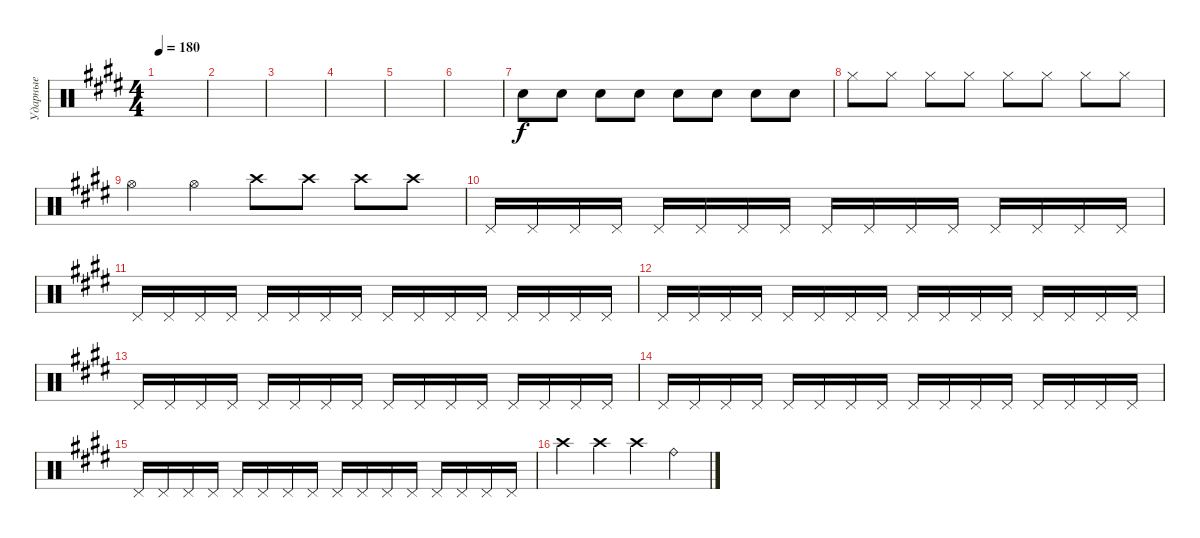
\track ("Ударные" "Ударные") {instrument percussion}
\staff {score}
\articulation defaults
\ts (4 4)
\tempo 180
\clef neutral
\ks e
|
|
|
|
|
|
"Snare (hit) 2".8 "Snare (hit) 2".8 "Snare (hit) 2".8 "Snare (hit) 2".8 "Snare (hit) 2".8 "Snare (hit) 2".8 "Snare (hit) 2".8 "Snare (hit) 2".8 |
"Hi-Hat (closed)".8 "Hi-Hat (closed)".8 "Hi-Hat (closed)".8 "Hi-Hat (closed)".8 "Hi-Hat (closed)".8 "Hi-Hat (closed)".8 "Hi-Hat (closed)".8 "Hi-Hat (closed)".8 |
"Hi-Hat (open)".4 "Hi-Hat (open)".4 "Crash high (hit)".8 "Crash high (hit)".8 "Crash high (hit)".8 "Crash high (hit)".8 |
"Pedal Hi-Hat (hit)".16 "Pedal Hi-Hat (hit)".16 "Pedal Hi-Hat (hit)".16 "Pedal Hi-Hat (hit)".16 "Pedal Hi-Hat (hit)".16 "Pedal Hi-Hat (hit)".16 "Pedal Hi-Hat (hit)".16 "Pedal Hi-Hat (hit)".16 "Pedal Hi-Hat (hit)".16 "Pedal Hi-Hat (hit)".16 "Pedal Hi-Hat (hit)".16 "Pedal Hi-Hat (hit)".16 "Pedal Hi-Hat (hit)".16 "Pedal Hi-Hat (hit)".16 "Pedal Hi-Hat (hit)".16 "Pedal Hi-Hat (hit)".16 |
"Pedal Hi-Hat (hit)".16 "Pedal Hi-Hat (hit)".16 "Pedal Hi-Hat (hit)".16 "Pedal Hi-Hat (hit)".16 "Pedal Hi-Hat (hit)".16 "Pedal Hi-Hat (hit)".16 "Pedal Hi-Hat (hit)".16 "Pedal Hi-Hat (hit)".16 "Pedal Hi-Hat (hit)".16 "Pedal Hi-Hat (hit)".16 "Pedal Hi-Hat (hit)".16 "Pedal Hi-Hat (hit)".16 "Pedal Hi-Hat (hit)".16 "Pedal Hi-Hat (hit)".16 "Pedal Hi-Hat (hit)".16 "Pedal Hi-Hat (hit)".16 |
"Pedal Hi-Hat (hit)".16 "Pedal Hi-Hat (hit)".16 "Pedal Hi-Hat (hit)".16 "Pedal Hi-Hat (hit)".16 "Pedal Hi-Hat (hit)".16 "Pedal Hi-Hat (hit)".16 "Pedal Hi-Hat (hit)".16 "Pedal Hi-Hat (hit)".16 "Pedal Hi-Hat (hit)".16 "Pedal Hi-Hat (hit)".16 "Pedal Hi-Hat (hit)".16 "Pedal Hi-Hat (hit)".16 "Pedal Hi-Hat (hit)".16 "Pedal Hi-Hat (hit)".16 "Pedal Hi-Hat (hit)".16 "Pedal Hi-Hat (hit)".16 |
"Pedal Hi-Hat (hit)".16 "Pedal Hi-Hat (hit)".16 "Pedal Hi-Hat (hit)".16 "Pedal Hi-Hat (hit)".16 "Pedal Hi-Hat (hit)".16 "Pedal Hi-Hat (hit)".16 "Pedal Hi-Hat (hit)".16 "Pedal Hi-Hat (hit)".16 "Pedal Hi-Hat (hit)".16 "Pedal Hi-Hat (hit)".16 "Pedal Hi-Hat (hit)".16 "Pedal Hi-Hat (hit)".16 "Pedal Hi-Hat (hit)".16 "Pedal Hi-Hat (hit)".16 "Pedal Hi-Hat (hit)".16 "Pedal Hi-Hat (hit)".16 |
"Pedal Hi-Hat (hit)".16 "Pedal Hi-Hat (hit)".16 "Pedal Hi-Hat (hit)".16 "Pedal Hi-Hat (hit)".16 "Pedal Hi-Hat (hit)".16 "Pedal Hi-Hat (hit)".16 "Pedal Hi-Hat (hit)".16 "Pedal Hi-Hat (hit)".16 "Pedal Hi-Hat (hit)".16 "Pedal Hi-Hat (hit)".16 "Pedal Hi-Hat (hit)".16 "Pedal Hi-Hat (hit)".16 "Pedal Hi-Hat (hit)".16 "Pedal Hi-Hat (hit)".16 "Pedal Hi-Hat (hit)".16 "Pedal Hi-Hat (hit)".16 |
"Pedal Hi-Hat (hit)".16 "Pedal Hi-Hat (hit)".16 "Pedal Hi-Hat (hit)".16 "Pedal Hi-Hat (hit)".16 "Pedal Hi-Hat (hit)".16 "Pedal Hi-Hat (hit)".16 "Pedal Hi-Hat (hit)".16 "Pedal Hi-Hat (hit)".16 "Pedal Hi-Hat (hit)".16 "Pedal Hi-Hat (hit)".16 "Pedal Hi-Hat (hit)".16 "Pedal Hi-Hat (hit)".16 "Pedal Hi-Hat (hit)".16 "Pedal Hi-Hat (hit)".16 "Pedal Hi-Hat (hit)".16 "Pedal Hi-Hat (hit)".16 |
"Crash high (hit)".4 "Crash high (hit)".4 "Crash high (hit)".4 "Ride (bell)".4
